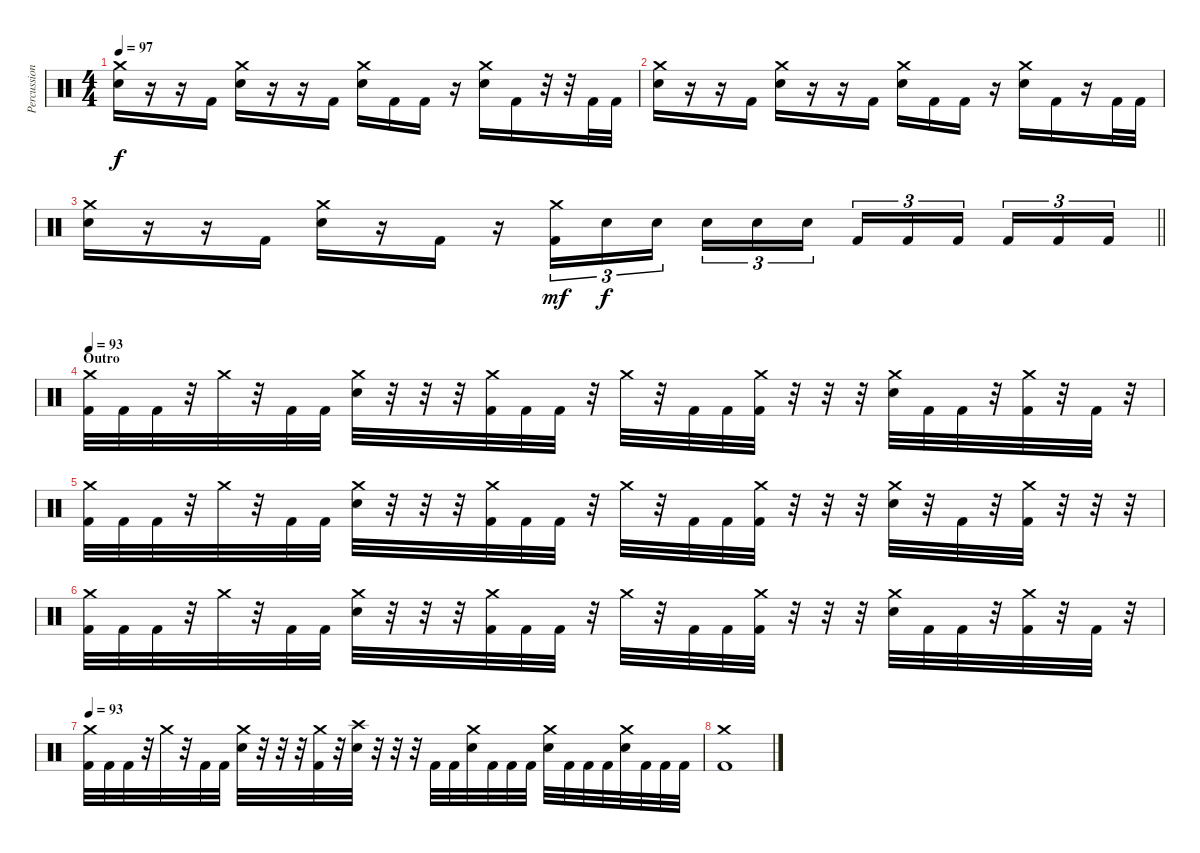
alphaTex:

\track ("Percussion" "Percussion") {instrument percussion}
\staff {score}
\articulation defaults
\ts (4 4)
\tempo 97
\clef neutral
\ks c
("Crash medium (hit)" "Electric Snare (hit)").16{dy f} r.16 r.16 "Kick (hit) 2".16 ("Crash medium (hit)" "Electric Snare (hit)").16 r.16 r.16 "Kick (hit) 2".16 ("Crash medium (hit)" "Electric Snare (hit)").16 "Kick (hit) 2".16 "Kick (hit) 2".16 r.16 ("Crash medium (hit)" "Electric Snare (hit)").16 "Kick (hit) 2".16 r.32 r.32 "Kick (hit) 2".32 "Kick (hit) 2".32 |
("Crash medium (hit)" "Electric Snare (hit)").16 r.16 r.16 "Kick (hit) 2".16 ("Crash medium (hit)" "Electric Snare (hit)").16 r.16 r.16 "Kick (hit) 2".16 ("Crash medium (hit)" "Electric Snare (hit)").16 "Kick (hit) 2".16 "Kick (hit) 2".16 r.16 ("Crash medium (hit)" "Electric Snare (hit)").16 "Kick (hit) 2".16 r.16 "Kick (hit) 2".32 "Kick (hit) 2".32 |
\barLineRight lightlight
("Crash medium (hit)" "Electric Snare (hit)").16 r.16 r.16 "Kick (hit) 2".16 ("Crash medium (hit)" "Electric Snare (hit)").16 r.16 "Kick (hit) 2".16 r.16 ("Crash medium (hit)" "Kick (hit) 2").16{tu (3 2) dy mf} "Electric Snare (hit)".16{tu (3 2) dy f} "Electric Snare (hit)".16{tu (3 2) beam splitsecondary} "Electric Snare (hit)".16{tu (3 2)} "Electric Snare (hit)".16{tu (3 2)} "Electric Snare (hit)".16{tu (3 2)} "Kick (hit) 2".16{tu (3 2)} "Kick (hit) 2".16{tu (3 2)} "Kick (hit) 2".16{tu (3 2) beam splitsecondary} "Kick (hit) 2".16{tu (3 2)} "Kick (hit) 2".16{tu (3 2)} "Kick (hit) 2".16{tu (3 2)} |
\section ("" "Outro")
\tempo 93
("Crash medium (hit)" "Kick (hit) 2").32 "Kick (hit) 2".32 "Kick (hit) 2".32 r.32 "Crash medium (hit)".32 r.32 "Kick (hit) 2".32 "Kick (hit) 2".32 ("Crash medium (hit)" "Electric Snare (hit)").32 r.32 r.32 r.32 ("Crash medium (hit)" "Kick (hit) 2").32 "Kick (hit) 2".32 "Kick (hit) 2".32 r.32 "Crash medium (hit)".32 r.32 "Kick (hit) 2".32 "Kick (hit) 2".32 ("Crash medium (hit)" "Kick (hit) 2").32 r.32 r.32 r.32 ("Crash medium (hit)" "Electric Snare (hit)").32 "Kick (hit) 2".32 "Kick (hit) 2".32 r.32 ("Crash medium (hit)" "Kick (hit) 2").32 r.32 "Kick (hit) 2".32 r.32 |
("Crash medium (hit)" "Kick (hit) 2").32 "Kick (hit) 2".32 "Kick (hit) 2".32 r.32 "Crash medium (hit)".32 r.32 "Kick (hit) 2".32 "Kick (hit) 2".32 ("Crash medium (hit)" "Electric Snare (hit)").32 r.32 r.32 r.32 ("Crash medium (hit)" "Kick (hit) 2").32 "Kick (hit) 2".32 "Kick (hit) 2".32 r.32 "Crash medium (hit)".32 r.32 "Kick (hit) 2".32 "Kick (hit) 2".32 ("Crash medium (hit)" "Kick (hit) 2").32 r.32 r.32 r.32 ("Crash medium (hit)" "Electric Snare (hit)").32 r.32 "Kick (hit) 2".32 r.32 ("Crash medium (hit)" "Kick (hit) 2").32 r.32 r.32 r.32 |
("Crash medium (hit)" "Kick (hit) 2").32 "Kick (hit) 2".32 "Kick (hit) 2".32 r.32 "Crash medium (hit)".32 r.32 "Kick (hit) 2".32 "Kick (hit) 2".32 ("Crash medium (hit)" "Electric Snare (hit)").32 r.32 r.32 r.32 ("Crash medium (hit)" "Kick (hit) 2").32 "Kick (hit) 2".32 "Kick (hit) 2".32 r.32 "Crash medium (hit)".32 r.32 "Kick (hit) 2".32 "Kick (hit) 2".32 ("Crash medium (hit)" "Kick (hit) 2").32 r.32 r.32 r.32 ("Crash medium (hit)" "Electric Snare (hit)").32 "Kick (hit) 2".32 "Kick (hit) 2".32 r.32 ("Crash medium (hit)" "Kick (hit) 2").32 r.32 "Kick (hit) 2".32 r.32 |
\tempo 93
("Crash medium (hit)" "Kick (hit) 2").32 "Kick (hit) 2".32 "Kick (hit) 2".32 r.32 "Crash medium (hit)".32 r.32 "Kick (hit) 2".32 "Kick (hit) 2".32 ("Crash medium (hit)" "Electric Snare (hit)").32 r.32 r.32 r.32 ("Crash medium (hit)" "Kick (hit) 2").32 r.32 ("Crash high (hit)" "Electric Snare (hit)").32 r.32 r.32 r.32 "Kick (hit) 2".32 "Kick (hit) 2".32 ("Crash medium (hit)" "Electric Snare (hit)").32 "Kick (hit) 2".32 "Kick (hit) 2".32 "Kick (hit) 2".32 ("Crash medium (hit)" "Electric Snare (hit)").32 "Kick (hit) 2".32 "Kick (hit) 2".32 "Kick (hit) 2".32 ("Crash medium (hit)" "Electric Snare (hit)").32 "Kick (hit) 2".32 "Kick (hit) 2".32 "Kick (hit) 2".32 |
("Crash medium (hit)" "Kick (hit) 2").1
